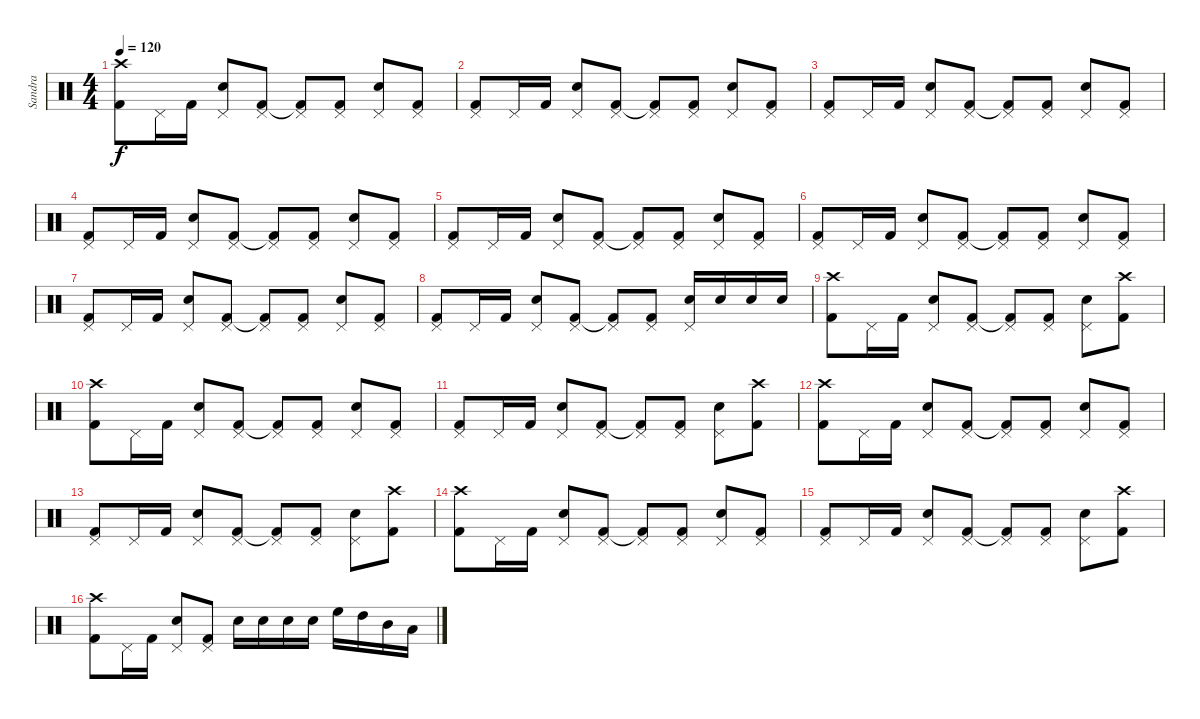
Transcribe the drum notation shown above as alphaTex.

\track ("Sandra" "Sandra") {instrument percussion}
\staff {score}
\articulation defaults
\ts (4 4)
\tempo 120
\clef neutral
\ks c
("Crash high (hit)" "Kick (hit) 2").8{dy f} "Pedal Hi-Hat (hit)".16 "Kick (hit) 2".16 ("Pedal Hi-Hat (hit)" "Snare (hit) 2").8 ("Pedal Hi-Hat (hit)" "Kick (hit) 2").8 ("Pedal Hi-Hat (hit)" "Kick (hit) 2"{t}).8 ("Pedal Hi-Hat (hit)" "Kick (hit) 2").8 ("Pedal Hi-Hat (hit)" "Snare (hit) 2").8 ("Pedal Hi-Hat (hit)" "Kick (hit) 2").8 |
("Pedal Hi-Hat (hit)" "Kick (hit) 2").8 "Pedal Hi-Hat (hit)".16 "Kick (hit) 2".16 ("Pedal Hi-Hat (hit)" "Snare (hit) 2").8 ("Pedal Hi-Hat (hit)" "Kick (hit) 2").8 ("Pedal Hi-Hat (hit)" "Kick (hit) 2"{t}).8 ("Pedal Hi-Hat (hit)" "Kick (hit) 2").8 ("Pedal Hi-Hat (hit)" "Snare (hit) 2").8 ("Pedal Hi-Hat (hit)" "Kick (hit) 2").8 |
("Pedal Hi-Hat (hit)" "Kick (hit) 2").8 "Pedal Hi-Hat (hit)".16 "Kick (hit) 2".16 ("Pedal Hi-Hat (hit)" "Snare (hit) 2").8 ("Pedal Hi-Hat (hit)" "Kick (hit) 2").8 ("Pedal Hi-Hat (hit)" "Kick (hit) 2"{t}).8 ("Pedal Hi-Hat (hit)" "Kick (hit) 2").8 ("Pedal Hi-Hat (hit)" "Snare (hit) 2").8 ("Pedal Hi-Hat (hit)" "Kick (hit) 2").8 |
("Pedal Hi-Hat (hit)" "Kick (hit) 2").8 "Pedal Hi-Hat (hit)".16 "Kick (hit) 2".16 ("Pedal Hi-Hat (hit)" "Snare (hit) 2").8 ("Pedal Hi-Hat (hit)" "Kick (hit) 2").8 ("Pedal Hi-Hat (hit)" "Kick (hit) 2"{t}).8 ("Pedal Hi-Hat (hit)" "Kick (hit) 2").8 ("Pedal Hi-Hat (hit)" "Snare (hit) 2").8 ("Pedal Hi-Hat (hit)" "Kick (hit) 2").8 |
("Pedal Hi-Hat (hit)" "Kick (hit) 2").8 "Pedal Hi-Hat (hit)".16 "Kick (hit) 2".16 ("Pedal Hi-Hat (hit)" "Snare (hit) 2").8 ("Pedal Hi-Hat (hit)" "Kick (hit) 2").8 ("Pedal Hi-Hat (hit)" "Kick (hit) 2"{t}).8 ("Pedal Hi-Hat (hit)" "Kick (hit) 2").8 ("Pedal Hi-Hat (hit)" "Snare (hit) 2").8 ("Pedal Hi-Hat (hit)" "Kick (hit) 2").8 |
("Pedal Hi-Hat (hit)" "Kick (hit) 2").8 "Pedal Hi-Hat (hit)".16 "Kick (hit) 2".16 ("Pedal Hi-Hat (hit)" "Snare (hit) 2").8 ("Pedal Hi-Hat (hit)" "Kick (hit) 2").8 ("Pedal Hi-Hat (hit)" "Kick (hit) 2"{t}).8 ("Pedal Hi-Hat (hit)" "Kick (hit) 2").8 ("Pedal Hi-Hat (hit)" "Snare (hit) 2").8 ("Pedal Hi-Hat (hit)" "Kick (hit) 2").8 |
("Pedal Hi-Hat (hit)" "Kick (hit) 2").8 "Pedal Hi-Hat (hit)".16 "Kick (hit) 2".16 ("Pedal Hi-Hat (hit)" "Snare (hit) 2").8 ("Pedal Hi-Hat (hit)" "Kick (hit) 2").8 ("Pedal Hi-Hat (hit)" "Kick (hit) 2"{t}).8 ("Pedal Hi-Hat (hit)" "Kick (hit) 2").8 ("Pedal Hi-Hat (hit)" "Snare (hit) 2").8 ("Pedal Hi-Hat (hit)" "Kick (hit) 2").8 |
("Pedal Hi-Hat (hit)" "Kick (hit) 2").8 "Pedal Hi-Hat (hit)".16 "Kick (hit) 2".16 ("Pedal Hi-Hat (hit)" "Snare (hit) 2").8 ("Pedal Hi-Hat (hit)" "Kick (hit) 2").8 ("Pedal Hi-Hat (hit)" "Kick (hit) 2"{t}).8 ("Pedal Hi-Hat (hit)" "Kick (hit) 2").8 ("Pedal Hi-Hat (hit)" "Snare (hit) 2").16 "Snare (hit) 2".16 "Snare (hit) 2".16 "Snare (hit) 2".16 |
("Crash high (hit)" "Kick (hit) 2").8 "Pedal Hi-Hat (hit)".16 "Kick (hit) 2".16 ("Pedal Hi-Hat (hit)" "Snare (hit) 2").8 ("Pedal Hi-Hat (hit)" "Kick (hit) 2").8 ("Pedal Hi-Hat (hit)" "Kick (hit) 2"{t}).8 ("Pedal Hi-Hat (hit)" "Kick (hit) 2").8 ("Pedal Hi-Hat (hit)" "Snare (hit) 2").8 ("Crash high (hit)" "Kick (hit) 2").8 |
("Crash high (hit)" "Kick (hit) 2").8 "Pedal Hi-Hat (hit)".16 "Kick (hit) 2".16 ("Pedal Hi-Hat (hit)" "Snare (hit) 2").8 ("Pedal Hi-Hat (hit)" "Kick (hit) 2").8 ("Pedal Hi-Hat (hit)" "Kick (hit) 2"{t}).8 ("Pedal Hi-Hat (hit)" "Kick (hit) 2").8 ("Pedal Hi-Hat (hit)" "Snare (hit) 2").8 ("Pedal Hi-Hat (hit)" "Kick (hit) 2").8 |
("Pedal Hi-Hat (hit)" "Kick (hit) 2").8 "Pedal Hi-Hat (hit)".16 "Kick (hit) 2".16 ("Pedal Hi-Hat (hit)" "Snare (hit) 2").8 ("Pedal Hi-Hat (hit)" "Kick (hit) 2").8 ("Pedal Hi-Hat (hit)" "Kick (hit) 2"{t}).8 ("Pedal Hi-Hat (hit)" "Kick (hit) 2").8 ("Pedal Hi-Hat (hit)" "Snare (hit) 2").8 ("Crash high (hit)" "Kick (hit) 2").8 |
("Crash high (hit)" "Kick (hit) 2").8 "Pedal Hi-Hat (hit)".16 "Kick (hit) 2".16 ("Pedal Hi-Hat (hit)" "Snare (hit) 2").8 ("Pedal Hi-Hat (hit)" "Kick (hit) 2").8 ("Pedal Hi-Hat (hit)" "Kick (hit) 2"{t}).8 ("Pedal Hi-Hat (hit)" "Kick (hit) 2").8 ("Pedal Hi-Hat (hit)" "Snare (hit) 2").8 ("Pedal Hi-Hat (hit)" "Kick (hit) 2").8 |
("Pedal Hi-Hat (hit)" "Kick (hit) 2").8 "Pedal Hi-Hat (hit)".16 "Kick (hit) 2".16 ("Pedal Hi-Hat (hit)" "Snare (hit) 2").8 ("Pedal Hi-Hat (hit)" "Kick (hit) 2").8 ("Pedal Hi-Hat (hit)" "Kick (hit) 2"{t}).8 ("Pedal Hi-Hat (hit)" "Kick (hit) 2").8 ("Pedal Hi-Hat (hit)" "Snare (hit) 2").8 ("Crash high (hit)" "Kick (hit) 2").8 |
("Crash high (hit)" "Kick (hit) 2").8 "Pedal Hi-Hat (hit)".16 "Kick (hit) 2".16 ("Pedal Hi-Hat (hit)" "Snare (hit) 2").8 ("Pedal Hi-Hat (hit)" "Kick (hit) 2").8 ("Pedal Hi-Hat (hit)" "Kick (hit) 2"{t}).8 ("Pedal Hi-Hat (hit)" "Kick (hit) 2").8 ("Pedal Hi-Hat (hit)" "Snare (hit) 2").8 ("Pedal Hi-Hat (hit)" "Kick (hit) 2").8 |
("Pedal Hi-Hat (hit)" "Kick (hit) 2").8 "Pedal Hi-Hat (hit)".16 "Kick (hit) 2".16 ("Pedal Hi-Hat (hit)" "Snare (hit) 2").8 ("Pedal Hi-Hat (hit)" "Kick (hit) 2").8 ("Pedal Hi-Hat (hit)" "Kick (hit) 2"{t}).8 ("Pedal Hi-Hat (hit)" "Kick (hit) 2").8 ("Pedal Hi-Hat (hit)" "Snare (hit) 2").8 ("Crash high (hit)" "Kick (hit) 2").8 |
("Crash high (hit)" "Kick (hit) 2").8 "Pedal Hi-Hat (hit)".16 "Kick (hit) 2".16 ("Pedal Hi-Hat (hit)" "Snare (hit) 2").8 ("Pedal Hi-Hat (hit)" "Kick (hit) 2").8 "Snare (hit) 2".16 "Snare (hit) 2".16 "Snare (hit) 2".16 "Snare (hit) 2".16 "High Floor Tom (hit)".16 "High Tom (hit)".16 "Mid Tom (hit)".16 "Low Tom (hit)".16
